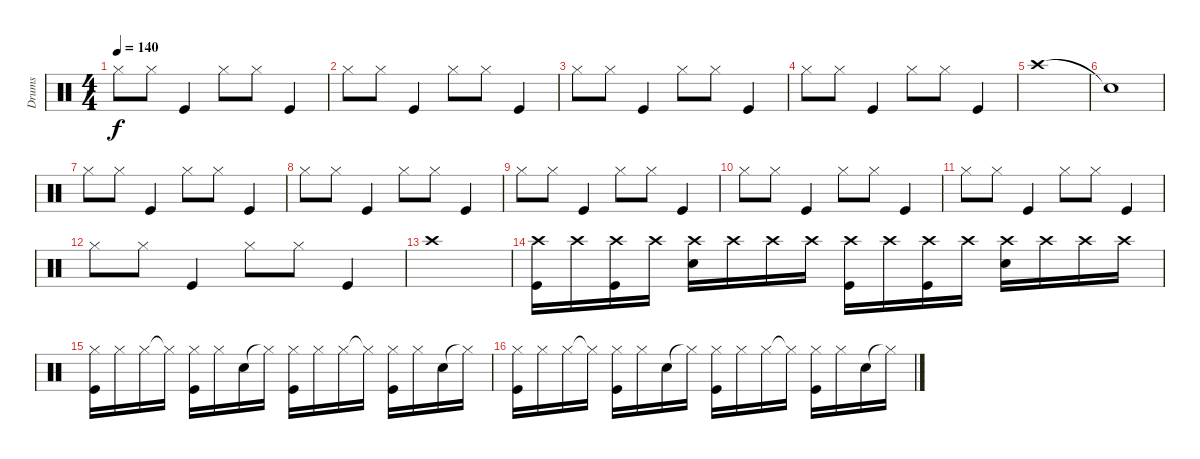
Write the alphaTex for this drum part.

\track ("Drums" "Drums") {instrument percussion}
\staff {score}
\articulation defaults
\ts (4 4)
\tempo 140
\clef neutral
\ks c "Hi-Hat (closed)".8{dy f} "Hi-Hat (closed)".8 "Kick (hit)".4 "Hi-Hat (closed)".8 "Hi-Hat (closed)".8 "Kick (hit)".4
|
"Hi-Hat (closed)".8 "Hi-Hat (closed)".8 "Kick (hit)".4 "Hi-Hat (closed)".8 "Hi-Hat (closed)".8 "Kick (hit)".4 |
"Hi-Hat (closed)".8 "Hi-Hat (closed)".8 "Kick (hit)".4 "Hi-Hat (closed)".8 "Hi-Hat (closed)".8 "Kick (hit)".4 |
"Hi-Hat (closed)".8 "Hi-Hat (closed)".8 "Kick (hit)".4 "Hi-Hat (closed)".8 "Hi-Hat (closed)".8 "Kick (hit)".4 |
"Crash high (hit)".1 |
"Snare (hit)"{t}.1 |
"Hi-Hat (closed)".8 "Hi-Hat (closed)".8 "Kick (hit)".4 "Hi-Hat (closed)".8 "Hi-Hat (closed)".8 "Kick (hit)".4 |
"Hi-Hat (closed)".8 "Hi-Hat (closed)".8 "Kick (hit)".4 "Hi-Hat (closed)".8 "Hi-Hat (closed)".8 "Kick (hit)".4 |
"Hi-Hat (closed)".8 "Hi-Hat (closed)".8 "Kick (hit)".4 "Hi-Hat (closed)".8 "Hi-Hat (closed)".8 "Kick (hit)".4 |
"Hi-Hat (closed)".8 "Hi-Hat (closed)".8 "Kick (hit)".4 "Hi-Hat (closed)".8 "Hi-Hat (closed)".8 "Kick (hit)".4 |
"Hi-Hat (closed)".8 "Hi-Hat (closed)".8 "Kick (hit)".4 "Hi-Hat (closed)".8 "Hi-Hat (closed)".8 "Kick (hit)".4 |
"Hi-Hat (closed)".8 "Hi-Hat (closed)".8 "Kick (hit)".4 "Hi-Hat (closed)".8 "Hi-Hat (closed)".8 "Kick (hit)".4 |
"Crash high (hit)".1 |
("Crash high (hit)" "Kick (hit)").16 "Crash high (hit)".16 ("Crash high (hit)" "Kick (hit)").16 "Crash high (hit)".16 ("Crash high (hit)" "Snare (hit) 2").16 "Crash high (hit)".16 "Crash high (hit)".16 "Crash high (hit)".16 ("Crash high (hit)" "Kick (hit)").16 "Crash high (hit)".16 ("Crash high (hit)" "Kick (hit)").16 "Crash high (hit)".16 ("Crash high (hit)" "Snare (hit) 2").16 "Crash high (hit)".16 "Crash high (hit)".16 "Crash high (hit)".16 |
("Hi-Hat (closed)" "Kick (hit)").16 "Hi-Hat (closed)".16 "Hi-Hat (closed)".16 "Hi-Hat (closed)"{t}.16 ("Hi-Hat (closed)" "Kick (hit)").16 "Hi-Hat (closed)".16 "Snare (hit) 2".16 "Hi-Hat (closed)"{t}.16 ("Hi-Hat (closed)" "Kick (hit)").16 "Hi-Hat (closed)".16 "Hi-Hat (closed)".16 "Hi-Hat (closed)"{t}.16 ("Hi-Hat (closed)" "Kick (hit)").16 "Hi-Hat (closed)".16 "Snare (hit) 2".16 "Hi-Hat (closed)"{t}.16 |
("Hi-Hat (closed)" "Kick (hit)").16 "Hi-Hat (closed)".16 "Hi-Hat (closed)".16 "Hi-Hat (closed)"{t}.16 ("Hi-Hat (closed)" "Kick (hit)").16 "Hi-Hat (closed)".16 "Snare (hit) 2".16 "Hi-Hat (closed)"{t}.16 ("Hi-Hat (closed)" "Kick (hit)").16 "Hi-Hat (closed)".16 "Hi-Hat (closed)".16 "Hi-Hat (closed)"{t}.16 ("Hi-Hat (closed)" "Kick (hit)").16 "Hi-Hat (closed)".16 "Snare (hit) 2".16 "Hi-Hat (closed)"{t}.16
